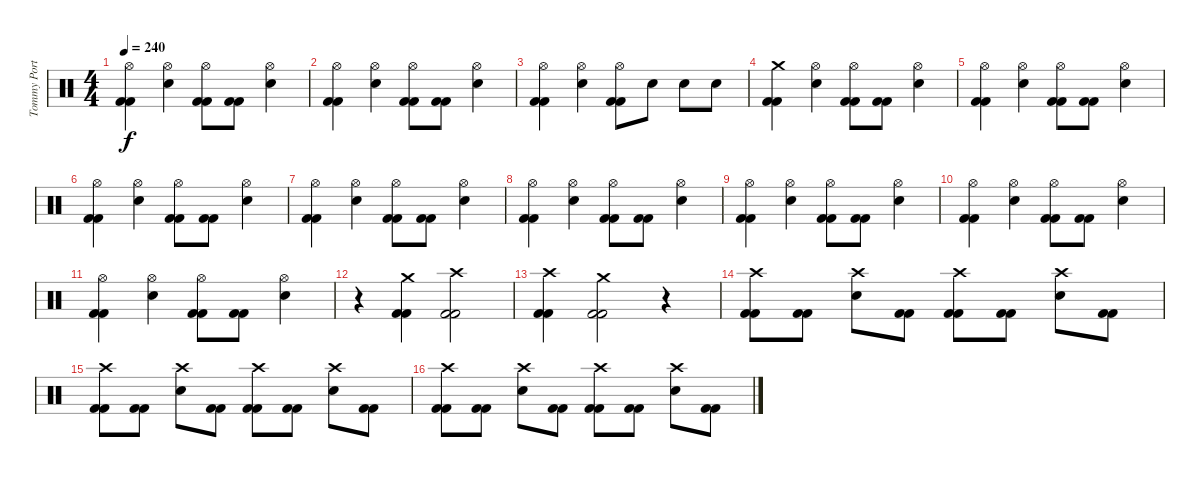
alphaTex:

\track ("Tommy Portimo " "Tommy Port") {instrument percussion}
\staff {score}
\articulation defaults
\ts (4 4)
\tempo 240
\clef neutral
\ks c
("Hi-Hat (open)" "Kick (hit) 2" "Kick (hit) 2").4{dy f} ("Hi-Hat (open)" "Electric Snare (hit)").4 ("Hi-Hat (open)" "Kick (hit) 2" "Kick (hit) 2").8 ("Kick (hit) 2" "Kick (hit) 2").8 ("Hi-Hat (open)" "Electric Snare (hit)").4 |
("Hi-Hat (open)" "Kick (hit) 2" "Kick (hit) 2").4 ("Hi-Hat (open)" "Electric Snare (hit)").4 ("Hi-Hat (open)" "Kick (hit) 2" "Kick (hit) 2").8 ("Kick (hit) 2" "Kick (hit) 2").8 ("Hi-Hat (open)" "Electric Snare (hit)").4 |
("Hi-Hat (open)" "Kick (hit) 2" "Kick (hit) 2").4 ("Hi-Hat (open)" "Electric Snare (hit)").4 ("Hi-Hat (open)" "Kick (hit) 2" "Kick (hit) 2").8 "Electric Snare (hit)".8 "Electric Snare (hit)".8 "Electric Snare (hit)".8 |
("Crash medium (hit)" "Kick (hit) 2" "Kick (hit) 2").4 ("Hi-Hat (open)" "Electric Snare (hit)").4 ("Hi-Hat (open)" "Kick (hit) 2" "Kick (hit) 2").8 ("Kick (hit) 2" "Kick (hit) 2").8 ("Hi-Hat (open)" "Electric Snare (hit)").4 |
("Hi-Hat (open)" "Kick (hit) 2" "Kick (hit) 2").4 ("Hi-Hat (open)" "Electric Snare (hit)").4 ("Hi-Hat (open)" "Kick (hit) 2" "Kick (hit) 2").8 ("Kick (hit) 2" "Kick (hit) 2").8 ("Hi-Hat (open)" "Electric Snare (hit)").4 |
("Hi-Hat (open)" "Kick (hit) 2" "Kick (hit) 2").4 ("Hi-Hat (open)" "Electric Snare (hit)").4 ("Hi-Hat (open)" "Kick (hit) 2" "Kick (hit) 2").8 ("Kick (hit) 2" "Kick (hit) 2").8 ("Hi-Hat (open)" "Electric Snare (hit)").4 |
("Hi-Hat (open)" "Kick (hit) 2" "Kick (hit) 2").4 ("Hi-Hat (open)" "Electric Snare (hit)").4 ("Hi-Hat (open)" "Kick (hit) 2" "Kick (hit) 2").8 ("Kick (hit) 2" "Kick (hit) 2").8 ("Hi-Hat (open)" "Electric Snare (hit)").4 |
("Hi-Hat (open)" "Kick (hit) 2" "Kick (hit) 2").4 ("Hi-Hat (open)" "Electric Snare (hit)").4 ("Hi-Hat (open)" "Kick (hit) 2" "Kick (hit) 2").8 ("Kick (hit) 2" "Kick (hit) 2").8 ("Hi-Hat (open)" "Electric Snare (hit)").4 |
("Hi-Hat (open)" "Kick (hit) 2" "Kick (hit) 2").4 ("Hi-Hat (open)" "Electric Snare (hit)").4 ("Hi-Hat (open)" "Kick (hit) 2" "Kick (hit) 2").8 ("Kick (hit) 2" "Kick (hit) 2").8 ("Hi-Hat (open)" "Electric Snare (hit)").4 |
("Hi-Hat (open)" "Kick (hit) 2" "Kick (hit) 2").4 ("Hi-Hat (open)" "Electric Snare (hit)").4 ("Hi-Hat (open)" "Kick (hit) 2" "Kick (hit) 2").8 ("Kick (hit) 2" "Kick (hit) 2").8 ("Hi-Hat (open)" "Electric Snare (hit)").4 |
("Hi-Hat (open)" "Kick (hit) 2" "Kick (hit) 2").4 ("Hi-Hat (open)" "Electric Snare (hit)").4 ("Hi-Hat (open)" "Kick (hit) 2" "Kick (hit) 2").8 ("Kick (hit) 2" "Kick (hit) 2").8 ("Hi-Hat (open)" "Electric Snare (hit)").4 |
r.4 ("Crash medium (hit)" "Kick (hit) 2" "Kick (hit) 2").4 ("Crash high (hit)" "Kick (hit) 2" "Kick (hit) 2").2 |
("Crash high (hit)" "Kick (hit) 2" "Kick (hit) 2").4 ("Crash medium (hit)" "Kick (hit) 2" "Kick (hit) 2").2 r.4 |
("Crash high (hit)" "Kick (hit) 2" "Kick (hit) 2").8 ("Kick (hit) 2" "Kick (hit) 2").8 ("Crash high (hit)" "Electric Snare (hit)").8 ("Kick (hit) 2" "Kick (hit) 2").8 ("Crash high (hit)" "Kick (hit) 2" "Kick (hit) 2").8 ("Kick (hit) 2" "Kick (hit) 2").8 ("Crash high (hit)" "Electric Snare (hit)").8 ("Kick (hit) 2" "Kick (hit) 2").8 |
("Crash high (hit)" "Kick (hit) 2" "Kick (hit) 2").8 ("Kick (hit) 2" "Kick (hit) 2").8 ("Crash high (hit)" "Electric Snare (hit)").8 ("Kick (hit) 2" "Kick (hit) 2").8 ("Crash high (hit)" "Kick (hit) 2" "Kick (hit) 2").8 ("Kick (hit) 2" "Kick (hit) 2").8 ("Crash high (hit)" "Electric Snare (hit)").8 ("Kick (hit) 2" "Kick (hit) 2").8 |
("Crash high (hit)" "Kick (hit) 2" "Kick (hit) 2").8 ("Kick (hit) 2" "Kick (hit) 2").8 ("Crash high (hit)" "Electric Snare (hit)").8 ("Kick (hit) 2" "Kick (hit) 2").8 ("Crash high (hit)" "Kick (hit) 2" "Kick (hit) 2").8 ("Kick (hit) 2" "Kick (hit) 2").8 ("Crash high (hit)" "Electric Snare (hit)").8 ("Kick (hit) 2" "Kick (hit) 2").8
